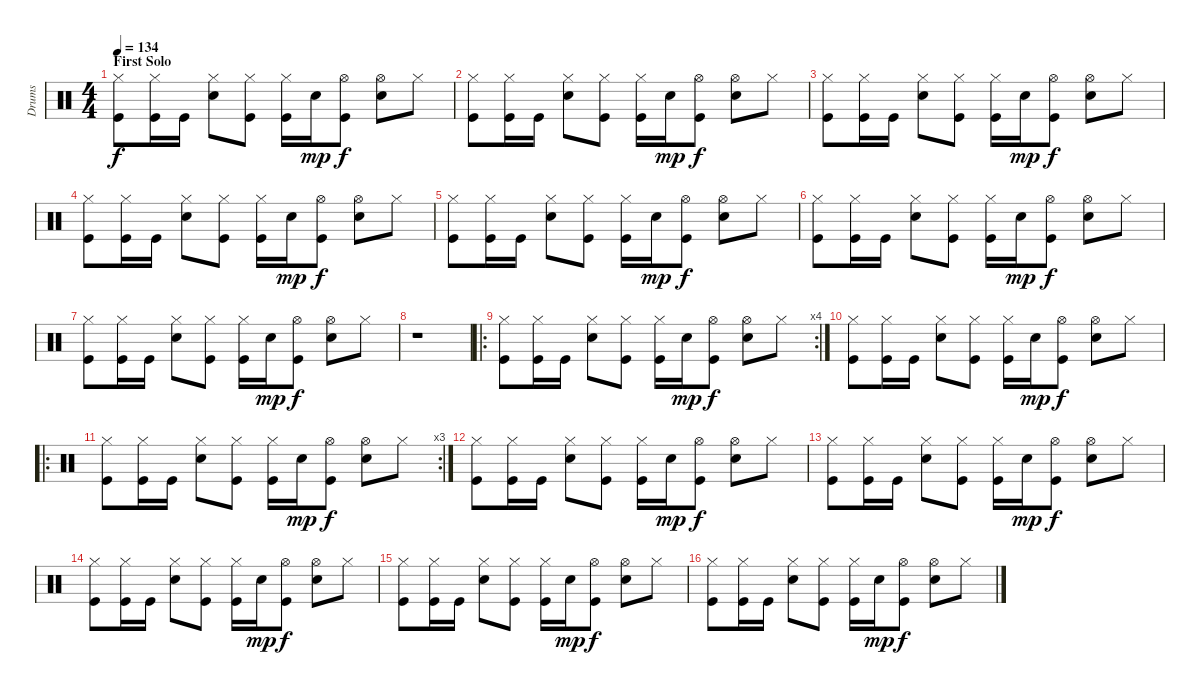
\track ("Drums" "Drums") {instrument percussion}
\staff {score}
\articulation defaults
\ts (4 4)
\section ("" "First Solo")
\tempo 134
\clef neutral
\ks c
("Hi-Hat (closed)" "Kick (hit)").8{dy f} ("Hi-Hat (closed)" "Kick (hit)").16 "Kick (hit)".16 ("Hi-Hat (closed)" "Snare (hit) 2").8 ("Hi-Hat (closed)" "Kick (hit)").8 ("Hi-Hat (closed)" "Kick (hit)").16 "Snare (hit) 2".16{dy mp} ("Hi-Hat (open)" "Kick (hit)").8{dy f} ("Hi-Hat (open)" "Snare (hit) 2").8 "Hi-Hat (closed)".8 |
("Hi-Hat (closed)" "Kick (hit)").8 ("Hi-Hat (closed)" "Kick (hit)").16 "Kick (hit)".16 ("Hi-Hat (closed)" "Snare (hit) 2").8 ("Hi-Hat (closed)" "Kick (hit)").8 ("Hi-Hat (closed)" "Kick (hit)").16 "Snare (hit) 2".16{dy mp} ("Hi-Hat (open)" "Kick (hit)").8{dy f} ("Hi-Hat (open)" "Snare (hit) 2").8 "Hi-Hat (closed)".8 |
("Hi-Hat (closed)" "Kick (hit)").8 ("Hi-Hat (closed)" "Kick (hit)").16 "Kick (hit)".16 ("Hi-Hat (closed)" "Snare (hit) 2").8 ("Hi-Hat (closed)" "Kick (hit)").8 ("Hi-Hat (closed)" "Kick (hit)").16 "Snare (hit) 2".16{dy mp} ("Hi-Hat (open)" "Kick (hit)").8{dy f} ("Hi-Hat (open)" "Snare (hit) 2").8 "Hi-Hat (closed)".8 |
("Hi-Hat (closed)" "Kick (hit)").8 ("Hi-Hat (closed)" "Kick (hit)").16 "Kick (hit)".16 ("Hi-Hat (closed)" "Snare (hit) 2").8 ("Hi-Hat (closed)" "Kick (hit)").8 ("Hi-Hat (closed)" "Kick (hit)").16 "Snare (hit) 2".16{dy mp} ("Hi-Hat (open)" "Kick (hit)").8{dy f} ("Hi-Hat (open)" "Snare (hit) 2").8 "Hi-Hat (closed)".8 |
("Hi-Hat (closed)" "Kick (hit)").8 ("Hi-Hat (closed)" "Kick (hit)").16 "Kick (hit)".16 ("Hi-Hat (closed)" "Snare (hit) 2").8 ("Hi-Hat (closed)" "Kick (hit)").8 ("Hi-Hat (closed)" "Kick (hit)").16 "Snare (hit) 2".16{dy mp} ("Hi-Hat (open)" "Kick (hit)").8{dy f} ("Hi-Hat (open)" "Snare (hit) 2").8 "Hi-Hat (closed)".8 |
("Hi-Hat (closed)" "Kick (hit)").8 ("Hi-Hat (closed)" "Kick (hit)").16 "Kick (hit)".16 ("Hi-Hat (closed)" "Snare (hit) 2").8 ("Hi-Hat (closed)" "Kick (hit)").8 ("Hi-Hat (closed)" "Kick (hit)").16 "Snare (hit) 2".16{dy mp} ("Hi-Hat (open)" "Kick (hit)").8{dy f} ("Hi-Hat (open)" "Snare (hit) 2").8 "Hi-Hat (closed)".8 |
("Hi-Hat (closed)" "Kick (hit)").8 ("Hi-Hat (closed)" "Kick (hit)").16 "Kick (hit)".16 ("Hi-Hat (closed)" "Snare (hit) 2").8 ("Hi-Hat (closed)" "Kick (hit)").8 ("Hi-Hat (closed)" "Kick (hit)").16 "Snare (hit) 2".16{dy mp} ("Hi-Hat (open)" "Kick (hit)").8{dy f} ("Hi-Hat (open)" "Snare (hit) 2").8 "Hi-Hat (closed)".8 |
r.1 |
\ro
\rc 4
("Hi-Hat (closed)" "Kick (hit)").8 ("Hi-Hat (closed)" "Kick (hit)").16 "Kick (hit)".16 ("Hi-Hat (closed)" "Snare (hit) 2").8 ("Hi-Hat (closed)" "Kick (hit)").8 ("Hi-Hat (closed)" "Kick (hit)").16 "Snare (hit) 2".16{dy mp} ("Hi-Hat (open)" "Kick (hit)").8{dy f} ("Hi-Hat (open)" "Snare (hit) 2").8 "Hi-Hat (closed)".8 |
("Hi-Hat (closed)" "Kick (hit)").8 ("Hi-Hat (closed)" "Kick (hit)").16 "Kick (hit)".16 ("Hi-Hat (closed)" "Snare (hit) 2").8 ("Hi-Hat (closed)" "Kick (hit)").8 ("Hi-Hat (closed)" "Kick (hit)").16 "Snare (hit) 2".16{dy mp} ("Hi-Hat (open)" "Kick (hit)").8{dy f} ("Hi-Hat (open)" "Snare (hit) 2").8 "Hi-Hat (closed)".8 |
\ro
\rc 3
("Hi-Hat (closed)" "Kick (hit)").8 ("Hi-Hat (closed)" "Kick (hit)").16 "Kick (hit)".16 ("Hi-Hat (closed)" "Snare (hit) 2").8 ("Hi-Hat (closed)" "Kick (hit)").8 ("Hi-Hat (closed)" "Kick (hit)").16 "Snare (hit) 2".16{dy mp} ("Hi-Hat (open)" "Kick (hit)").8{dy f} ("Hi-Hat (open)" "Snare (hit) 2").8 "Hi-Hat (closed)".8 |
("Hi-Hat (closed)" "Kick (hit)").8 ("Hi-Hat (closed)" "Kick (hit)").16 "Kick (hit)".16 ("Hi-Hat (closed)" "Snare (hit) 2").8 ("Hi-Hat (closed)" "Kick (hit)").8 ("Hi-Hat (closed)" "Kick (hit)").16 "Snare (hit) 2".16{dy mp} ("Hi-Hat (open)" "Kick (hit)").8{dy f} ("Hi-Hat (open)" "Snare (hit) 2").8 "Hi-Hat (closed)".8 |
("Hi-Hat (closed)" "Kick (hit)").8 ("Hi-Hat (closed)" "Kick (hit)").16 "Kick (hit)".16 ("Hi-Hat (closed)" "Snare (hit) 2").8 ("Hi-Hat (closed)" "Kick (hit)").8 ("Hi-Hat (closed)" "Kick (hit)").16 "Snare (hit) 2".16{dy mp} ("Hi-Hat (open)" "Kick (hit)").8{dy f} ("Hi-Hat (open)" "Snare (hit) 2").8 "Hi-Hat (closed)".8 |
("Hi-Hat (closed)" "Kick (hit)").8 ("Hi-Hat (closed)" "Kick (hit)").16 "Kick (hit)".16 ("Hi-Hat (closed)" "Snare (hit) 2").8 ("Hi-Hat (closed)" "Kick (hit)").8 ("Hi-Hat (closed)" "Kick (hit)").16 "Snare (hit) 2".16{dy mp} ("Hi-Hat (open)" "Kick (hit)").8{dy f} ("Hi-Hat (open)" "Snare (hit) 2").8 "Hi-Hat (closed)".8 |
("Hi-Hat (closed)" "Kick (hit)").8 ("Hi-Hat (closed)" "Kick (hit)").16 "Kick (hit)".16 ("Hi-Hat (closed)" "Snare (hit) 2").8 ("Hi-Hat (closed)" "Kick (hit)").8 ("Hi-Hat (closed)" "Kick (hit)").16 "Snare (hit) 2".16{dy mp} ("Hi-Hat (open)" "Kick (hit)").8{dy f} ("Hi-Hat (open)" "Snare (hit) 2").8 "Hi-Hat (closed)".8 |
("Hi-Hat (closed)" "Kick (hit)").8 ("Hi-Hat (closed)" "Kick (hit)").16 "Kick (hit)".16 ("Hi-Hat (closed)" "Snare (hit) 2").8 ("Hi-Hat (closed)" "Kick (hit)").8 ("Hi-Hat (closed)" "Kick (hit)").16 "Snare (hit) 2".16{dy mp} ("Hi-Hat (open)" "Kick (hit)").8{dy f} ("Hi-Hat (open)" "Snare (hit) 2").8 "Hi-Hat (closed)".8
